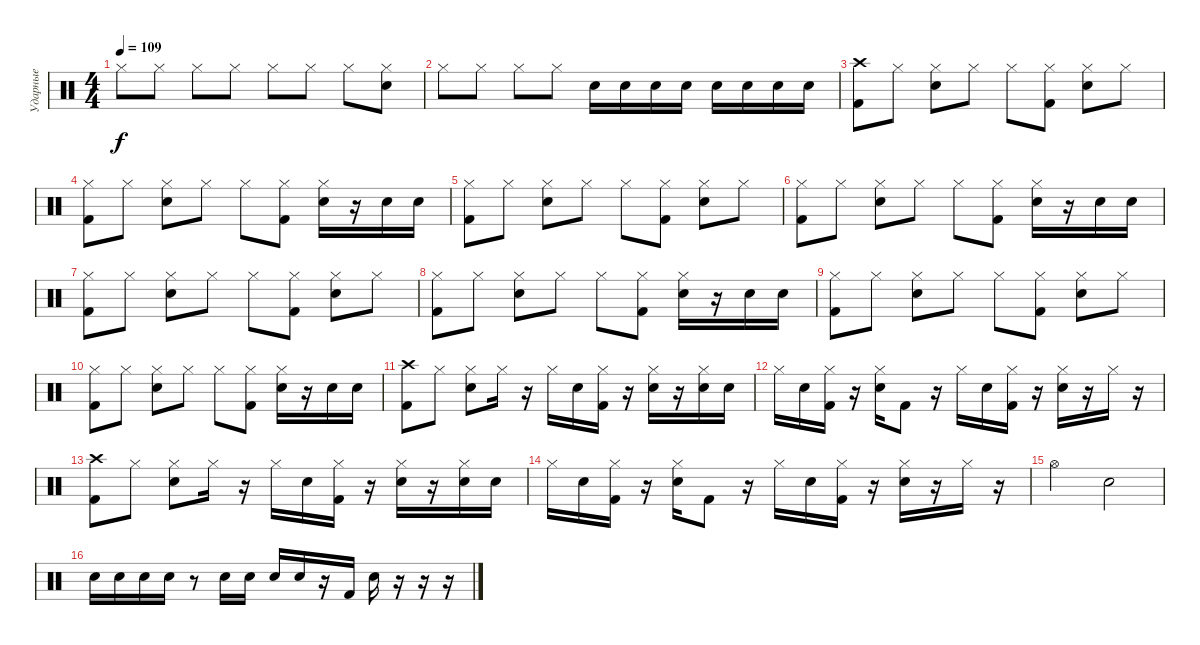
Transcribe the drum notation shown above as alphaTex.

\track ("Ударные" "Ударные") {instrument percussion}
\staff {score}
\articulation defaults
\ts (4 4)
\tempo 109
\clef neutral
\ks c "Hi-Hat (closed)".8{dy f} "Hi-Hat (closed)".8 "Hi-Hat (closed)".8 "Hi-Hat (closed)".8 "Hi-Hat (closed)".8 "Hi-Hat (closed)".8 "Hi-Hat (closed)".8
("Electric Snare (hit)" "Hi-Hat (closed)").8 |
"Hi-Hat (closed)".8 "Hi-Hat (closed)".8 "Hi-Hat (closed)".8 "Hi-Hat (closed)".8 "Electric Snare (hit)".16 "Electric Snare (hit)".16 "Electric Snare (hit)".16 "Electric Snare (hit)".16 "Electric Snare (hit)".16 "Electric Snare (hit)".16 "Electric Snare (hit)".16 "Electric Snare (hit)".16 |
("Kick (hit) 2" "Crash high (hit)").8 "Hi-Hat (closed)".8 ("Electric Snare (hit)" "Hi-Hat (closed)").8 "Hi-Hat (closed)".8 "Hi-Hat (closed)".8 ("Kick (hit) 2" "Hi-Hat (closed)").8 ("Electric Snare (hit)" "Hi-Hat (closed)").8 "Hi-Hat (closed)".8 |
("Kick (hit) 2" "Hi-Hat (closed)").8 "Hi-Hat (closed)".8 ("Electric Snare (hit)" "Hi-Hat (closed)").8 "Hi-Hat (closed)".8 "Hi-Hat (closed)".8 ("Kick (hit) 2" "Hi-Hat (closed)").8 ("Electric Snare (hit)" "Hi-Hat (closed)").16 r.16 "Electric Snare (hit)".16 "Electric Snare (hit)".16 |
("Kick (hit) 2" "Hi-Hat (closed)").8 "Hi-Hat (closed)".8 ("Electric Snare (hit)" "Hi-Hat (closed)").8 "Hi-Hat (closed)".8 "Hi-Hat (closed)".8 ("Kick (hit) 2" "Hi-Hat (closed)").8 ("Electric Snare (hit)" "Hi-Hat (closed)").8 "Hi-Hat (closed)".8 |
("Kick (hit) 2" "Hi-Hat (closed)").8 "Hi-Hat (closed)".8 ("Electric Snare (hit)" "Hi-Hat (closed)").8 "Hi-Hat (closed)".8 "Hi-Hat (closed)".8 ("Kick (hit) 2" "Hi-Hat (closed)").8 ("Electric Snare (hit)" "Hi-Hat (closed)").16 r.16 "Electric Snare (hit)".16 "Electric Snare (hit)".16 |
("Kick (hit) 2" "Hi-Hat (closed)").8 "Hi-Hat (closed)".8 ("Electric Snare (hit)" "Hi-Hat (closed)").8 "Hi-Hat (closed)".8 "Hi-Hat (closed)".8 ("Kick (hit) 2" "Hi-Hat (closed)").8 ("Electric Snare (hit)" "Hi-Hat (closed)").8 "Hi-Hat (closed)".8 |
("Kick (hit) 2" "Hi-Hat (closed)").8 "Hi-Hat (closed)".8 ("Electric Snare (hit)" "Hi-Hat (closed)").8 "Hi-Hat (closed)".8 "Hi-Hat (closed)".8 ("Kick (hit) 2" "Hi-Hat (closed)").8 ("Electric Snare (hit)" "Hi-Hat (closed)").16 r.16 "Electric Snare (hit)".16 "Electric Snare (hit)".16 |
("Kick (hit) 2" "Hi-Hat (closed)").8 "Hi-Hat (closed)".8 ("Electric Snare (hit)" "Hi-Hat (closed)").8 "Hi-Hat (closed)".8 "Hi-Hat (closed)".8 ("Kick (hit) 2" "Hi-Hat (closed)").8 ("Electric Snare (hit)" "Hi-Hat (closed)").8 "Hi-Hat (closed)".8 |
("Kick (hit) 2" "Hi-Hat (closed)").8 "Hi-Hat (closed)".8 ("Electric Snare (hit)" "Hi-Hat (closed)").8 "Hi-Hat (closed)".8 "Hi-Hat (closed)".8 ("Kick (hit) 2" "Hi-Hat (closed)").8 ("Electric Snare (hit)" "Hi-Hat (closed)").16 r.16 "Electric Snare (hit)".16 "Electric Snare (hit)".16 |
("Kick (hit) 2" "Crash high (hit)").8 "Hi-Hat (closed)".8 ("Electric Snare (hit)" "Hi-Hat (closed)").8 "Hi-Hat (closed)".16 r.16 "Hi-Hat (closed)".16 "Electric Snare (hit)".16 ("Kick (hit) 2" "Hi-Hat (closed)").16 r.16 ("Electric Snare (hit)" "Hi-Hat (closed)").16 r.16 ("Electric Snare (hit)" "Hi-Hat (closed)").16 "Electric Snare (hit)".16 |
"Hi-Hat (closed)".16 "Electric Snare (hit)".16 ("Kick (hit) 2" "Hi-Hat (closed)").16 r.16 ("Electric Snare (hit)" "Hi-Hat (closed)").16 "Kick (hit) 2".8 r.16 "Hi-Hat (closed)".16 "Electric Snare (hit)".16 ("Kick (hit) 2" "Hi-Hat (closed)").16 r.16 ("Electric Snare (hit)" "Hi-Hat (closed)").16 r.16 "Hi-Hat (closed)".16 r.16 |
("Kick (hit) 2" "Crash high (hit)").8 "Hi-Hat (closed)".8 ("Electric Snare (hit)" "Hi-Hat (closed)").8 "Hi-Hat (closed)".16 r.16 "Hi-Hat (closed)".16 "Electric Snare (hit)".16 ("Kick (hit) 2" "Hi-Hat (closed)").16 r.16 ("Electric Snare (hit)" "Hi-Hat (closed)").16 r.16 ("Electric Snare (hit)" "Hi-Hat (closed)").16 "Electric Snare (hit)".16 |
"Hi-Hat (closed)".16 "Electric Snare (hit)".16 ("Kick (hit) 2" "Hi-Hat (closed)").16 r.16 ("Electric Snare (hit)" "Hi-Hat (closed)").16 "Kick (hit) 2".8 r.16 "Hi-Hat (closed)".16 "Electric Snare (hit)".16 ("Kick (hit) 2" "Hi-Hat (closed)").16 r.16 ("Electric Snare (hit)" "Hi-Hat (closed)").16 r.16 "Hi-Hat (closed)".16 r.16 |
"Hi-Hat (open)".2 "Electric Snare (hit)".2 |
"Electric Snare (hit)".16 "Electric Snare (hit)".16 "Electric Snare (hit)".16 "Electric Snare (hit)".16 r.8 "Electric Snare (hit)".16 "Electric Snare (hit)".16 "Electric Snare (hit)".16 "Electric Snare (hit)".16 r.16 "Kick (hit) 2".16 "Electric Snare (hit)".16 r.16 r.16 r.16
